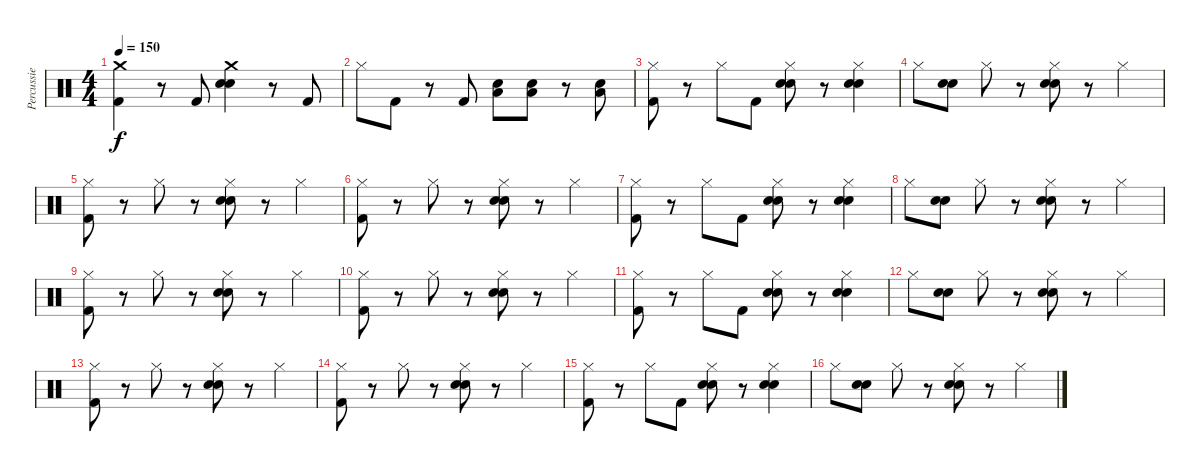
\track ("Percussie" "Percussie") {instrument percussion}
\staff {score}
\articulation defaults
\ts (4 4)
\tempo 150
\clef neutral
\ks c
("Crash medium (hit)" "Kick (hit) 2").4{dy f} r.8 "Kick (hit) 2".8 ("Crash medium (hit)" "Electric Snare (hit)" "Snare (hit) 2").4 r.8 "Kick (hit) 2".8 |
"Hi-Hat (closed)".8 "Kick (hit) 2".8 r.8 "Kick (hit) 2".8 ("Electric Snare (hit)" "Low Tom (hit)").8 ("Electric Snare (hit)" "Low Tom (hit)").8 r.8 ("Electric Snare (hit)" "Low Tom (hit)").8 |
("Hi-Hat (closed)" "Kick (hit) 2").8 r.8 "Hi-Hat (closed)".8 "Kick (hit) 2".8 ("Hi-Hat (closed)" "Snare (hit) 2" "Electric Snare (hit)").8 r.8 ("Hi-Hat (closed)" "Snare (hit) 2" "Electric Snare (hit)").4 |
"Hi-Hat (closed)".8 ("Snare (hit) 2" "Electric Snare (hit)").8 "Hi-Hat (closed)".8 r.8 ("Hi-Hat (closed)" "Snare (hit) 2" "Electric Snare (hit)").8 r.8 "Hi-Hat (closed)".4 |
("Hi-Hat (closed)" "Kick (hit) 2").8 r.8 "Hi-Hat (closed)".8 r.8 ("Hi-Hat (closed)" "Snare (hit) 2" "Electric Snare (hit)").8 r.8 "Hi-Hat (closed)".4 |
("Hi-Hat (closed)" "Kick (hit) 2").8 r.8 "Hi-Hat (closed)".8 r.8 ("Hi-Hat (closed)" "Snare (hit) 2" "Electric Snare (hit)").8 r.8 "Hi-Hat (closed)".4 |
("Hi-Hat (closed)" "Kick (hit) 2").8 r.8 "Hi-Hat (closed)".8 "Kick (hit) 2".8 ("Hi-Hat (closed)" "Snare (hit) 2" "Electric Snare (hit)").8 r.8 ("Hi-Hat (closed)" "Snare (hit) 2" "Electric Snare (hit)").4 |
"Hi-Hat (closed)".8 ("Snare (hit) 2" "Electric Snare (hit)").8 "Hi-Hat (closed)".8 r.8 ("Hi-Hat (closed)" "Snare (hit) 2" "Electric Snare (hit)").8 r.8 "Hi-Hat (closed)".4 |
("Hi-Hat (closed)" "Kick (hit) 2").8 r.8 "Hi-Hat (closed)".8 r.8 ("Hi-Hat (closed)" "Snare (hit) 2" "Electric Snare (hit)").8 r.8 "Hi-Hat (closed)".4 |
("Hi-Hat (closed)" "Kick (hit) 2").8 r.8 "Hi-Hat (closed)".8 r.8 ("Hi-Hat (closed)" "Snare (hit) 2" "Electric Snare (hit)").8 r.8 "Hi-Hat (closed)".4 |
("Hi-Hat (closed)" "Kick (hit) 2").8 r.8 "Hi-Hat (closed)".8 "Kick (hit) 2".8 ("Hi-Hat (closed)" "Snare (hit) 2" "Electric Snare (hit)").8 r.8 ("Hi-Hat (closed)" "Snare (hit) 2" "Electric Snare (hit)").4 |
"Hi-Hat (closed)".8 ("Snare (hit) 2" "Electric Snare (hit)").8 "Hi-Hat (closed)".8 r.8 ("Hi-Hat (closed)" "Snare (hit) 2" "Electric Snare (hit)").8 r.8 "Hi-Hat (closed)".4 |
("Hi-Hat (closed)" "Kick (hit) 2").8 r.8 "Hi-Hat (closed)".8 r.8 ("Hi-Hat (closed)" "Snare (hit) 2" "Electric Snare (hit)").8 r.8 "Hi-Hat (closed)".4 |
("Hi-Hat (closed)" "Kick (hit) 2").8 r.8 "Hi-Hat (closed)".8 r.8 ("Hi-Hat (closed)" "Snare (hit) 2" "Electric Snare (hit)").8 r.8 "Hi-Hat (closed)".4 |
("Hi-Hat (closed)" "Kick (hit) 2").8 r.8 "Hi-Hat (closed)".8 "Kick (hit) 2".8 ("Hi-Hat (closed)" "Snare (hit) 2" "Electric Snare (hit)").8 r.8 ("Hi-Hat (closed)" "Snare (hit) 2" "Electric Snare (hit)").4 |
"Hi-Hat (closed)".8 ("Snare (hit) 2" "Electric Snare (hit)").8 "Hi-Hat (closed)".8 r.8 ("Hi-Hat (closed)" "Snare (hit) 2" "Electric Snare (hit)").8 r.8 "Hi-Hat (closed)".4
